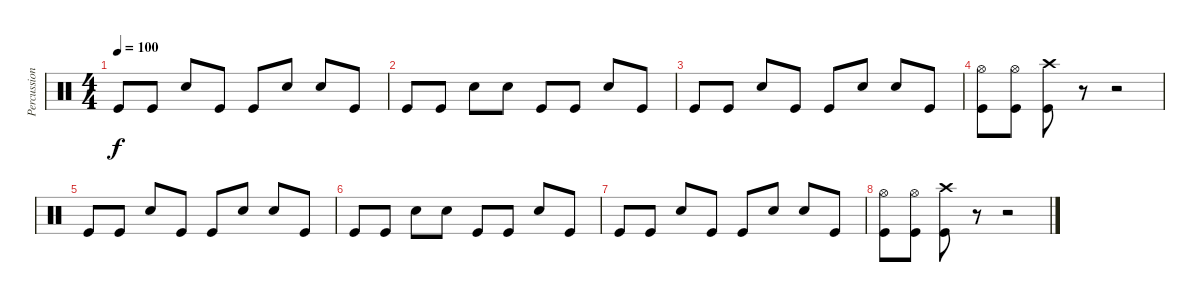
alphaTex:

\track ("Percussion" "Percussion") {instrument percussion}
\staff {score}
\articulation defaults
\ts (4 4)
\tempo 100
\clef neutral
\ks c "Kick (hit)".8{dy f} "Kick (hit)".8 "Snare (hit) 2".8 "Kick (hit)".8 "Kick (hit)".8 "Snare (hit) 2".8 "Snare (hit) 2".8 "Kick (hit)".8
|
"Kick (hit)".8 "Kick (hit)".8 "Snare (hit) 2".8 "Snare (hit) 2".8 "Kick (hit)".8 "Kick (hit)".8 "Snare (hit) 2".8 "Kick (hit)".8 |
"Kick (hit)".8 "Kick (hit)".8 "Snare (hit) 2".8 "Kick (hit)".8 "Kick (hit)".8 "Snare (hit) 2".8 "Snare (hit) 2".8 "Kick (hit)".8 |
("Hi-Hat (open)" "Kick (hit)").8 ("Hi-Hat (open)" "Kick (hit)").8 ("Crash high (hit)" "Kick (hit)").8 r.8 r.2 |
"Kick (hit)".8 "Kick (hit)".8 "Snare (hit) 2".8 "Kick (hit)".8 "Kick (hit)".8 "Snare (hit) 2".8 "Snare (hit) 2".8 "Kick (hit)".8 |
"Kick (hit)".8 "Kick (hit)".8 "Snare (hit) 2".8 "Snare (hit) 2".8 "Kick (hit)".8 "Kick (hit)".8 "Snare (hit) 2".8 "Kick (hit)".8 |
"Kick (hit)".8 "Kick (hit)".8 "Snare (hit) 2".8 "Kick (hit)".8 "Kick (hit)".8 "Snare (hit) 2".8 "Snare (hit) 2".8 "Kick (hit)".8 |
("Hi-Hat (open)" "Kick (hit)").8 ("Hi-Hat (open)" "Kick (hit)").8 ("Crash high (hit)" "Kick (hit)").8 r.8 r.2
